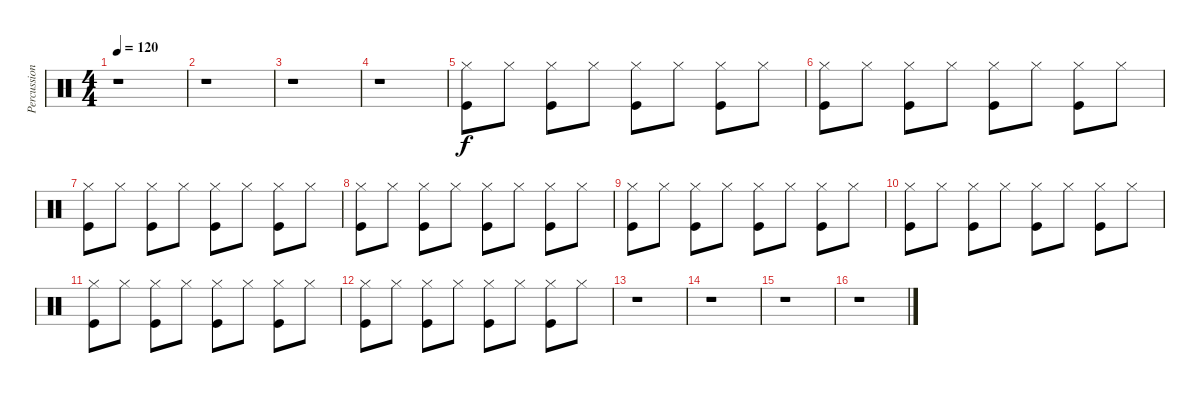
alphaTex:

\track ("Percussion" "Percussion") {instrument percussion}
\staff {score}
\articulation defaults
\ts (4 4)
\tempo 120
\clef neutral
\ks c
r.1{dy f} |
r.1 |
r.1 |
r.1 |
("Kick (hit)" "Hi-Hat (closed)").8 "Hi-Hat (closed)".8 ("Kick (hit)" "Hi-Hat (closed)").8 "Hi-Hat (closed)".8 ("Kick (hit)" "Hi-Hat (closed)").8 "Hi-Hat (closed)".8 ("Kick (hit)" "Hi-Hat (closed)").8 "Hi-Hat (closed)".8 |
("Kick (hit)" "Hi-Hat (closed)").8 "Hi-Hat (closed)".8 ("Kick (hit)" "Hi-Hat (closed)").8 "Hi-Hat (closed)".8 ("Kick (hit)" "Hi-Hat (closed)").8 "Hi-Hat (closed)".8 ("Kick (hit)" "Hi-Hat (closed)").8 "Hi-Hat (closed)".8 |
("Kick (hit)" "Hi-Hat (closed)").8 "Hi-Hat (closed)".8 ("Kick (hit)" "Hi-Hat (closed)").8 "Hi-Hat (closed)".8 ("Kick (hit)" "Hi-Hat (closed)").8 "Hi-Hat (closed)".8 ("Kick (hit)" "Hi-Hat (closed)").8 "Hi-Hat (closed)".8 |
("Kick (hit)" "Hi-Hat (closed)").8 "Hi-Hat (closed)".8 ("Kick (hit)" "Hi-Hat (closed)").8 "Hi-Hat (closed)".8 ("Kick (hit)" "Hi-Hat (closed)").8 "Hi-Hat (closed)".8 ("Kick (hit)" "Hi-Hat (closed)").8 "Hi-Hat (closed)".8 |
("Kick (hit)" "Hi-Hat (closed)").8 "Hi-Hat (closed)".8 ("Kick (hit)" "Hi-Hat (closed)").8 "Hi-Hat (closed)".8 ("Kick (hit)" "Hi-Hat (closed)").8 "Hi-Hat (closed)".8 ("Kick (hit)" "Hi-Hat (closed)").8 "Hi-Hat (closed)".8 |
("Kick (hit)" "Hi-Hat (closed)").8 "Hi-Hat (closed)".8 ("Kick (hit)" "Hi-Hat (closed)").8 "Hi-Hat (closed)".8 ("Kick (hit)" "Hi-Hat (closed)").8 "Hi-Hat (closed)".8 ("Kick (hit)" "Hi-Hat (closed)").8 "Hi-Hat (closed)".8 |
("Kick (hit)" "Hi-Hat (closed)").8 "Hi-Hat (closed)".8 ("Kick (hit)" "Hi-Hat (closed)").8 "Hi-Hat (closed)".8 ("Kick (hit)" "Hi-Hat (closed)").8 "Hi-Hat (closed)".8 ("Kick (hit)" "Hi-Hat (closed)").8 "Hi-Hat (closed)".8 |
("Kick (hit)" "Hi-Hat (closed)").8 "Hi-Hat (closed)".8 ("Kick (hit)" "Hi-Hat (closed)").8 "Hi-Hat (closed)".8 ("Kick (hit)" "Hi-Hat (closed)").8 "Hi-Hat (closed)".8 ("Kick (hit)" "Hi-Hat (closed)").8 "Hi-Hat (closed)".8 |
r.1 |
r.1 |
r.1 |
r.1
